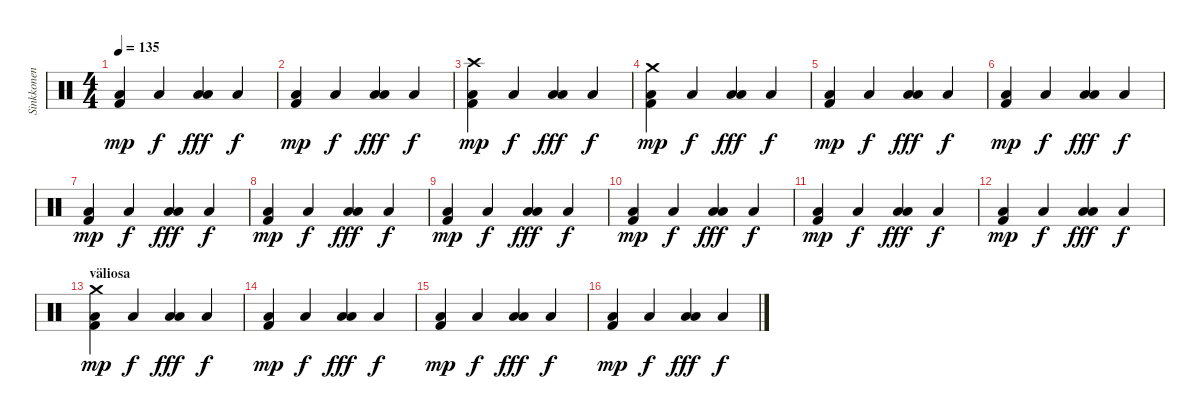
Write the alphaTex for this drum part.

\track ("Sinkkonen" "Sinkkonen") {instrument percussion}
\staff {score}
\articulation defaults
\ts (4 4)
\tempo 135
\clef neutral
\ks c
("Kick (hit) 2" "Low Floor Tom (hit)").4{dy mp} "Low Floor Tom (hit)".4{dy f} ("Low Floor Tom (hit)" "Low Floor Tom (hit)").4{dy fff} "Low Floor Tom (hit)".4{dy f} |
("Kick (hit) 2" "Low Floor Tom (hit)").4{dy mp} "Low Floor Tom (hit)".4{dy f} ("Low Floor Tom (hit)" "Low Floor Tom (hit)").4{dy fff} "Low Floor Tom (hit)".4{dy f} |
("Kick (hit) 2" "Crash high (hit)" "Low Floor Tom (hit)").4{dy mp} "Low Floor Tom (hit)".4{dy f} ("Low Floor Tom (hit)" "Low Floor Tom (hit)").4{dy fff} "Low Floor Tom (hit)".4{dy f} |
("Kick (hit) 2" "Crash medium (hit)" "Low Floor Tom (hit)").4{dy mp} "Low Floor Tom (hit)".4{dy f} ("Low Floor Tom (hit)" "Low Floor Tom (hit)").4{dy fff} "Low Floor Tom (hit)".4{dy f} |
("Kick (hit) 2" "Low Floor Tom (hit)").4{dy mp} "Low Floor Tom (hit)".4{dy f} ("Low Floor Tom (hit)" "Low Floor Tom (hit)").4{dy fff} "Low Floor Tom (hit)".4{dy f} |
("Kick (hit) 2" "Low Floor Tom (hit)").4{dy mp} "Low Floor Tom (hit)".4{dy f} ("Low Floor Tom (hit)" "Low Floor Tom (hit)").4{dy fff} "Low Floor Tom (hit)".4{dy f} |
("Kick (hit) 2" "Low Floor Tom (hit)").4{dy mp} "Low Floor Tom (hit)".4{dy f} ("Low Floor Tom (hit)" "Low Floor Tom (hit)").4{dy fff} "Low Floor Tom (hit)".4{dy f} |
("Kick (hit) 2" "Low Floor Tom (hit)").4{dy mp} "Low Floor Tom (hit)".4{dy f} ("Low Floor Tom (hit)" "Low Floor Tom (hit)").4{dy fff} "Low Floor Tom (hit)".4{dy f} |
("Kick (hit) 2" "Low Floor Tom (hit)").4{dy mp} "Low Floor Tom (hit)".4{dy f} ("Low Floor Tom (hit)" "Low Floor Tom (hit)").4{dy fff} "Low Floor Tom (hit)".4{dy f} |
("Kick (hit) 2" "Low Floor Tom (hit)").4{dy mp} "Low Floor Tom (hit)".4{dy f} ("Low Floor Tom (hit)" "Low Floor Tom (hit)").4{dy fff} "Low Floor Tom (hit)".4{dy f} |
("Kick (hit) 2" "Low Floor Tom (hit)").4{dy mp} "Low Floor Tom (hit)".4{dy f} ("Low Floor Tom (hit)" "Low Floor Tom (hit)").4{dy fff} "Low Floor Tom (hit)".4{dy f} |
("Kick (hit) 2" "Low Floor Tom (hit)").4{dy mp} "Low Floor Tom (hit)".4{dy f} ("Low Floor Tom (hit)" "Low Floor Tom (hit)").4{dy fff} "Low Floor Tom (hit)".4{dy f} |
\section ("" "väliosa")
("Kick (hit) 2" "Crash medium (hit)" "Low Floor Tom (hit)").4{dy mp} "Low Floor Tom (hit)".4{dy f} ("Low Floor Tom (hit)" "Low Floor Tom (hit)").4{dy fff} "Low Floor Tom (hit)".4{dy f} |
("Kick (hit) 2" "Low Floor Tom (hit)").4{dy mp} "Low Floor Tom (hit)".4{dy f} ("Low Floor Tom (hit)" "Low Floor Tom (hit)").4{dy fff} "Low Floor Tom (hit)".4{dy f} |
("Kick (hit) 2" "Low Floor Tom (hit)").4{dy mp} "Low Floor Tom (hit)".4{dy f} ("Low Floor Tom (hit)" "Low Floor Tom (hit)").4{dy fff} "Low Floor Tom (hit)".4{dy f} |
("Kick (hit) 2" "Low Floor Tom (hit)").4{dy mp} "Low Floor Tom (hit)".4{dy f} ("Low Floor Tom (hit)" "Low Floor Tom (hit)").4{dy fff} "Low Floor Tom (hit)".4{dy f}
